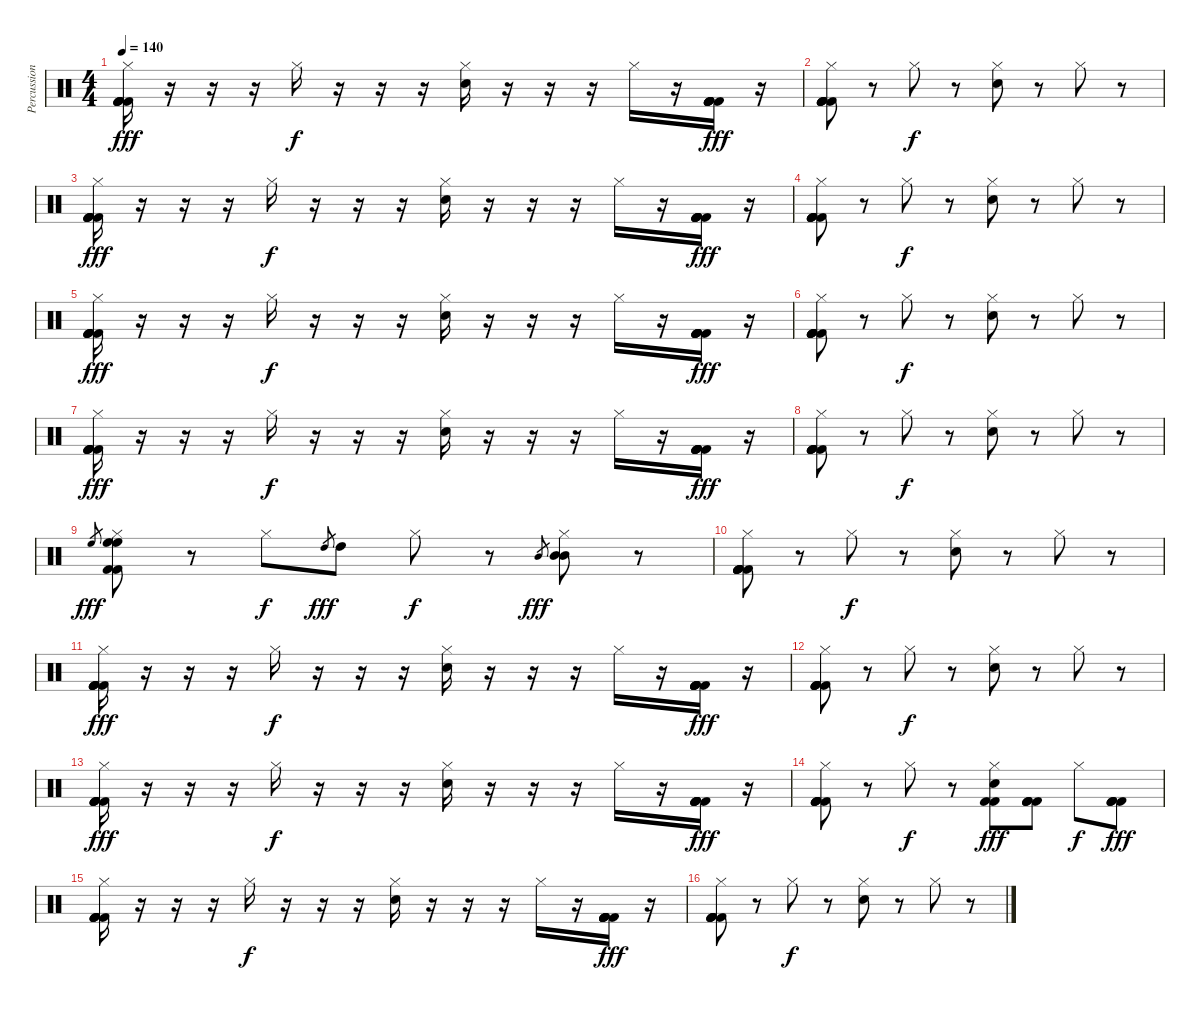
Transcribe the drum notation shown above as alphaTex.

\track ("Percussions" "Percussion") {instrument percussion}
\staff {score}
\articulation defaults
\ts (4 4)
\tempo 140
\clef neutral
\ks c
("Hi-Hat (closed)" "Kick (hit) 2" "Kick (hit) 2" "Kick (hit) 2" "Kick (hit) 2" "Kick (hit) 2").16{dy fff} r.16 r.16 r.16 "Hi-Hat (closed)".16{dy f} r.16 r.16 r.16 ("Hi-Hat (closed)" "Snare (hit) 2").16 r.16 r.16 r.16 "Hi-Hat (closed)".16 r.16 ("Kick (hit) 2" "Kick (hit) 2" "Kick (hit) 2" "Kick (hit) 2" "Kick (hit) 2" "Kick (hit) 2").16{dy fff} r.16 |
("Hi-Hat (closed)" "Kick (hit) 2" "Kick (hit) 2" "Kick (hit) 2" "Kick (hit) 2" "Kick (hit) 2").8 r.8 "Hi-Hat (closed)".8{dy f} r.8 ("Hi-Hat (closed)" "Snare (hit) 2").8 r.8 "Hi-Hat (closed)".8 r.8 |
("Hi-Hat (closed)" "Kick (hit) 2" "Kick (hit) 2" "Kick (hit) 2" "Kick (hit) 2" "Kick (hit) 2").16{dy fff} r.16 r.16 r.16 "Hi-Hat (closed)".16{dy f} r.16 r.16 r.16 ("Hi-Hat (closed)" "Snare (hit) 2").16 r.16 r.16 r.16 "Hi-Hat (closed)".16 r.16 ("Kick (hit) 2" "Kick (hit) 2" "Kick (hit) 2" "Kick (hit) 2" "Kick (hit) 2" "Kick (hit) 2").16{dy fff} r.16 |
("Hi-Hat (closed)" "Kick (hit) 2" "Kick (hit) 2" "Kick (hit) 2" "Kick (hit) 2" "Kick (hit) 2").8 r.8 "Hi-Hat (closed)".8{dy f} r.8 ("Hi-Hat (closed)" "Snare (hit) 2").8 r.8 "Hi-Hat (closed)".8 r.8 |
("Hi-Hat (closed)" "Kick (hit) 2" "Kick (hit) 2" "Kick (hit) 2" "Kick (hit) 2" "Kick (hit) 2").16{dy fff} r.16 r.16 r.16 "Hi-Hat (closed)".16{dy f} r.16 r.16 r.16 ("Hi-Hat (closed)" "Snare (hit) 2").16 r.16 r.16 r.16 "Hi-Hat (closed)".16 r.16 ("Kick (hit) 2" "Kick (hit) 2" "Kick (hit) 2" "Kick (hit) 2" "Kick (hit) 2" "Kick (hit) 2").16{dy fff} r.16 |
("Hi-Hat (closed)" "Kick (hit) 2" "Kick (hit) 2" "Kick (hit) 2" "Kick (hit) 2" "Kick (hit) 2").8 r.8 "Hi-Hat (closed)".8{dy f} r.8 ("Hi-Hat (closed)" "Snare (hit) 2").8 r.8 "Hi-Hat (closed)".8 r.8 |
("Hi-Hat (closed)" "Kick (hit) 2" "Kick (hit) 2" "Kick (hit) 2" "Kick (hit) 2" "Kick (hit) 2").16{dy fff} r.16 r.16 r.16 "Hi-Hat (closed)".16{dy f} r.16 r.16 r.16 ("Hi-Hat (closed)" "Snare (hit) 2").16 r.16 r.16 r.16 "Hi-Hat (closed)".16 r.16 ("Kick (hit) 2" "Kick (hit) 2" "Kick (hit) 2" "Kick (hit) 2" "Kick (hit) 2" "Kick (hit) 2").16{dy fff} r.16 |
("Hi-Hat (closed)" "Kick (hit) 2" "Kick (hit) 2" "Kick (hit) 2" "Kick (hit) 2" "Kick (hit) 2").8 r.8 "Hi-Hat (closed)".8{dy f} r.8 ("Hi-Hat (closed)" "Snare (hit) 2").8 r.8 "Hi-Hat (closed)".8 r.8 |
"High Floor Tom (hit)".8{gr dy fff} ("Hi-Hat (closed)" "High Floor Tom (hit)" "High Floor Tom (hit)" "Kick (hit) 2" "Kick (hit) 2").8 r.8 "Hi-Hat (closed)".8{dy f} "High Tom (hit)".8{gr dy fff} "High Tom (hit)".8 "Hi-Hat (closed)".8{dy f} r.8 "Mid Tom (hit)".8{gr dy fff} ("Hi-Hat (closed)" "Mid Tom (hit)" "Mid Tom (hit)").8 r.8 |
("Hi-Hat (closed)" "Kick (hit) 2" "Kick (hit) 2" "Kick (hit) 2" "Kick (hit) 2" "Kick (hit) 2").8 r.8 "Hi-Hat (closed)".8{dy f} r.8 ("Hi-Hat (closed)" "Snare (hit) 2").8 r.8 "Hi-Hat (closed)".8 r.8 |
("Hi-Hat (closed)" "Kick (hit) 2" "Kick (hit) 2" "Kick (hit) 2" "Kick (hit) 2" "Kick (hit) 2").16{dy fff} r.16 r.16 r.16 "Hi-Hat (closed)".16{dy f} r.16 r.16 r.16 ("Hi-Hat (closed)" "Snare (hit) 2").16 r.16 r.16 r.16 "Hi-Hat (closed)".16 r.16 ("Kick (hit) 2" "Kick (hit) 2" "Kick (hit) 2" "Kick (hit) 2" "Kick (hit) 2" "Kick (hit) 2").16{dy fff} r.16 |
("Hi-Hat (closed)" "Kick (hit) 2" "Kick (hit) 2" "Kick (hit) 2" "Kick (hit) 2" "Kick (hit) 2").8 r.8 "Hi-Hat (closed)".8{dy f} r.8 ("Hi-Hat (closed)" "Snare (hit) 2").8 r.8 "Hi-Hat (closed)".8 r.8 |
("Hi-Hat (closed)" "Kick (hit) 2" "Kick (hit) 2" "Kick (hit) 2" "Kick (hit) 2" "Kick (hit) 2").16{dy fff} r.16 r.16 r.16 "Hi-Hat (closed)".16{dy f} r.16 r.16 r.16 ("Hi-Hat (closed)" "Snare (hit) 2").16 r.16 r.16 r.16 "Hi-Hat (closed)".16 r.16 ("Kick (hit) 2" "Kick (hit) 2" "Kick (hit) 2" "Kick (hit) 2" "Kick (hit) 2" "Kick (hit) 2").16{dy fff} r.16 |
("Hi-Hat (closed)" "Kick (hit) 2" "Kick (hit) 2" "Kick (hit) 2" "Kick (hit) 2" "Kick (hit) 2").8 r.8 "Hi-Hat (closed)".8{dy f} r.8 ("Hi-Hat (closed)" "Kick (hit) 2" "Kick (hit) 2" "Snare (hit) 2").8{dy fff} ("Kick (hit) 2" "Kick (hit) 2" "Kick (hit) 2" "Kick (hit) 2").8 "Hi-Hat (closed)".8{dy f} ("Kick (hit) 2" "Kick (hit) 2" "Kick (hit) 2" "Kick (hit) 2").8{dy fff} |
("Hi-Hat (closed)" "Kick (hit) 2" "Kick (hit) 2" "Kick (hit) 2" "Kick (hit) 2" "Kick (hit) 2").16 r.16 r.16 r.16 "Hi-Hat (closed)".16{dy f} r.16 r.16 r.16 ("Hi-Hat (closed)" "Snare (hit) 2").16 r.16 r.16 r.16 "Hi-Hat (closed)".16 r.16 ("Kick (hit) 2" "Kick (hit) 2" "Kick (hit) 2" "Kick (hit) 2" "Kick (hit) 2" "Kick (hit) 2").16{dy fff} r.16 |
("Hi-Hat (closed)" "Kick (hit) 2" "Kick (hit) 2" "Kick (hit) 2" "Kick (hit) 2" "Kick (hit) 2").8 r.8 "Hi-Hat (closed)".8{dy f} r.8 ("Hi-Hat (closed)" "Snare (hit) 2").8 r.8 "Hi-Hat (closed)".8 r.8
